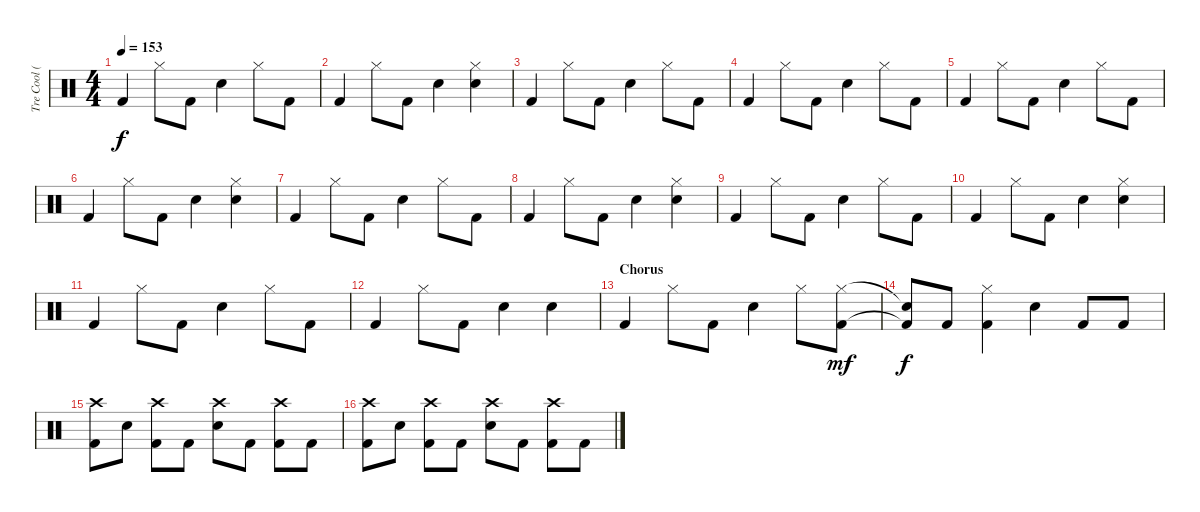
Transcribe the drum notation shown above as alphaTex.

\track ("Tre Cool (Drums)" "Tre Cool (") {instrument percussion}
\staff {score}
\articulation defaults
\ts (4 4)
\tempo 153
\clef neutral
\ks c "Kick (hit) 2".4{dy f} "Hi-Hat (closed)".8 "Kick (hit) 2".8 "Snare (hit) 2".4 "Hi-Hat (closed)".8 "Kick (hit) 2".8
|
"Kick (hit) 2".4 "Hi-Hat (closed)".8 "Kick (hit) 2".8 "Snare (hit) 2".4 ("Snare (hit) 2" "Hi-Hat (closed)").4 |
"Kick (hit) 2".4 "Hi-Hat (closed)".8 "Kick (hit) 2".8 "Snare (hit) 2".4 "Hi-Hat (closed)".8 "Kick (hit) 2".8 |
"Kick (hit) 2".4 "Hi-Hat (closed)".8 "Kick (hit) 2".8 "Snare (hit) 2".4 "Hi-Hat (closed)".8 "Kick (hit) 2".8 |
"Kick (hit) 2".4 "Hi-Hat (closed)".8 "Kick (hit) 2".8 "Snare (hit) 2".4 "Hi-Hat (closed)".8 "Kick (hit) 2".8 |
"Kick (hit) 2".4 "Hi-Hat (closed)".8 "Kick (hit) 2".8 "Snare (hit) 2".4 ("Snare (hit) 2" "Hi-Hat (closed)").4 |
"Kick (hit) 2".4 "Hi-Hat (closed)".8 "Kick (hit) 2".8 "Snare (hit) 2".4 "Hi-Hat (closed)".8 "Kick (hit) 2".8 |
"Kick (hit) 2".4 "Hi-Hat (closed)".8 "Kick (hit) 2".8 "Snare (hit) 2".4 ("Snare (hit) 2" "Hi-Hat (closed)").4 |
"Kick (hit) 2".4 "Hi-Hat (closed)".8 "Kick (hit) 2".8 "Snare (hit) 2".4 "Hi-Hat (closed)".8 "Kick (hit) 2".8 |
"Kick (hit) 2".4 "Hi-Hat (closed)".8 "Kick (hit) 2".8 "Snare (hit) 2".4 ("Snare (hit) 2" "Hi-Hat (closed)").4 |
"Kick (hit) 2".4 "Hi-Hat (closed)".8 "Kick (hit) 2".8 "Snare (hit) 2".4 "Hi-Hat (closed)".8 "Kick (hit) 2".8 |
"Kick (hit) 2".4 "Hi-Hat (closed)".8 "Kick (hit) 2".8 "Snare (hit) 2".4 "Snare (hit) 2".4 |
\section ("" "Chorus")
"Kick (hit) 2".4{volume 15} "Hi-Hat (closed)".8 "Kick (hit) 2".8 "Snare (hit) 2".4 "Hi-Hat (closed)".8 ("Kick (hit) 2" "Hi-Hat (closed)").8{dy mf} |
("Kick (hit) 2"{t} "Snare (hit)"{t}).8{dy f} "Kick (hit) 2".8 ("Kick (hit) 2" "Hi-Hat (closed)").4 "Snare (hit) 2".4 "Kick (hit) 2".8 "Kick (hit) 2".8 |
("Kick (hit) 2" "Crash high (hit)").8 "Snare (hit) 2".8 ("Kick (hit) 2" "Crash high (hit)").8 "Kick (hit) 2".8 ("Snare (hit) 2" "Crash high (hit)").8 "Kick (hit) 2".8 ("Kick (hit) 2" "Crash high (hit)").8 "Kick (hit) 2".8 |
("Kick (hit) 2" "Crash high (hit)").8 "Snare (hit) 2".8 ("Kick (hit) 2" "Crash high (hit)").8 "Kick (hit) 2".8 ("Snare (hit) 2" "Crash high (hit)").8 "Kick (hit) 2".8 ("Kick (hit) 2" "Crash high (hit)").8 "Kick (hit) 2".8
